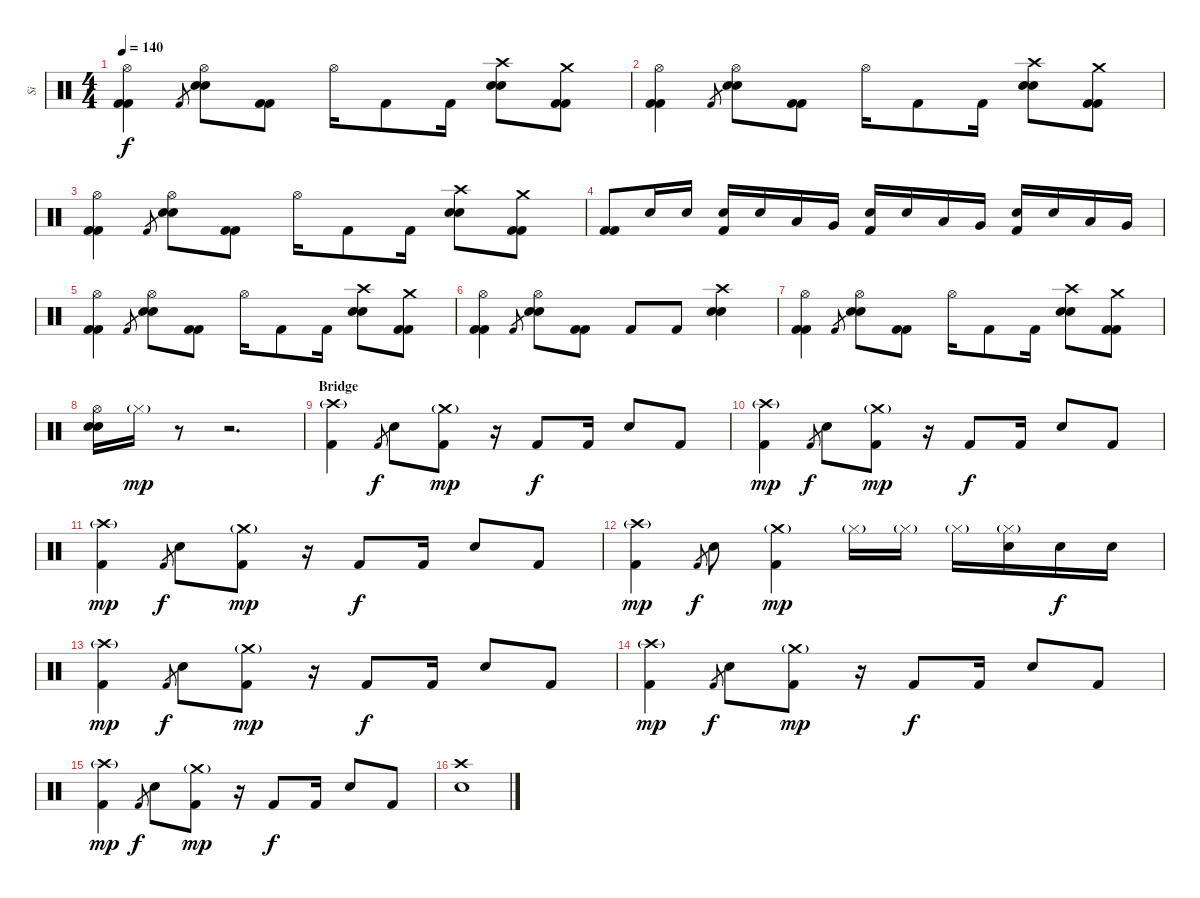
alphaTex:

\track ("Si" "Si") {instrument percussion}
\staff {score}
\articulation defaults
\ts (4 4)
\tempo 140
\clef neutral
\ks c
("Hi-Hat (open)" "Kick (hit) 2" "Kick (hit) 2").4{dy f} "Kick (hit) 2".8{gr} ("Hi-Hat (open)" "Electric Snare (hit)" "Electric Snare (hit)").8 ("Kick (hit) 2" "Kick (hit) 2").8 "Hi-Hat (open)".16 "Kick (hit) 2".8 "Kick (hit) 2".16 ("Crash high (hit)" "Electric Snare (hit)" "Electric Snare (hit)").8 ("Crash medium (hit)" "Kick (hit) 2" "Kick (hit) 2").8 |
("Hi-Hat (open)" "Kick (hit) 2" "Kick (hit) 2").4 "Kick (hit) 2".8{gr} ("Hi-Hat (open)" "Electric Snare (hit)" "Electric Snare (hit)").8 ("Kick (hit) 2" "Kick (hit) 2").8 "Hi-Hat (open)".16 "Kick (hit) 2".8 "Kick (hit) 2".16 ("Crash high (hit)" "Electric Snare (hit)" "Electric Snare (hit)").8 ("Crash medium (hit)" "Kick (hit) 2" "Kick (hit) 2").8 |
("Hi-Hat (open)" "Kick (hit) 2" "Kick (hit) 2").4 "Kick (hit) 2".8{gr} ("Hi-Hat (open)" "Electric Snare (hit)" "Electric Snare (hit)").8 ("Kick (hit) 2" "Kick (hit) 2").8 "Hi-Hat (open)".16 "Kick (hit) 2".8 "Kick (hit) 2".16 ("Crash high (hit)" "Electric Snare (hit)" "Electric Snare (hit)").8 ("Crash medium (hit)" "Kick (hit) 2" "Kick (hit) 2").8 |
("Kick (hit) 2" "Kick (hit) 2").8 "Electric Snare (hit)".16 "Electric Snare (hit)".16 ("Electric Snare (hit)" "Kick (hit) 2").16 "Electric Snare (hit)".16 "Low Tom (hit)".16 "Very Low Tom (hit)".16 ("Electric Snare (hit)" "Kick (hit) 2").16 "Electric Snare (hit)".16 "Low Tom (hit)".16 "Very Low Tom (hit)".16 ("Electric Snare (hit)" "Kick (hit) 2").16 "Electric Snare (hit)".16 "Low Tom (hit)".16 "Very Low Tom (hit)".16 |
("Hi-Hat (open)" "Kick (hit) 2" "Kick (hit) 2").4 "Kick (hit) 2".8{gr} ("Hi-Hat (open)" "Electric Snare (hit)" "Electric Snare (hit)").8 ("Kick (hit) 2" "Kick (hit) 2").8 "Hi-Hat (open)".16 "Kick (hit) 2".8 "Kick (hit) 2".16 ("Crash high (hit)" "Electric Snare (hit)" "Electric Snare (hit)").8 ("Crash medium (hit)" "Kick (hit) 2" "Kick (hit) 2").8 |
("Hi-Hat (open)" "Kick (hit) 2" "Kick (hit) 2").4 "Kick (hit) 2".8{gr} ("Hi-Hat (open)" "Electric Snare (hit)" "Electric Snare (hit)").8 ("Kick (hit) 2" "Kick (hit) 2").8 "Kick (hit) 2".8 "Kick (hit) 2".8 ("Crash high (hit)" "Electric Snare (hit)" "Electric Snare (hit)").4 |
("Hi-Hat (open)" "Kick (hit) 2" "Kick (hit) 2").4 "Kick (hit) 2".8{gr} ("Hi-Hat (open)" "Electric Snare (hit)" "Electric Snare (hit)").8 ("Kick (hit) 2" "Kick (hit) 2").8 "Hi-Hat (open)".16 "Kick (hit) 2".8 "Kick (hit) 2".16 ("Crash high (hit)" "Electric Snare (hit)" "Electric Snare (hit)").8 ("Crash medium (hit)" "Kick (hit) 2" "Kick (hit) 2").8 |
("Hi-Hat (open)" "Electric Snare (hit)" "Electric Snare (hit)").16 "Hi-Hat (closed)"{g}.16{dy mp} r.8 r.2{d} |
\section ("" "Bridge")
("Crash high (hit)"{g} "Kick (hit) 2").4 "Kick (hit) 2".8{gr dy f} "Electric Snare (hit)".8 ("Crash medium (hit)"{g} "Kick (hit) 2").8{dy mp} r.16 "Kick (hit) 2".8{dy f} "Kick (hit) 2".16 "Electric Snare (hit)".8 "Kick (hit) 2".8 |
("Crash high (hit)"{g} "Kick (hit) 2").4{dy mp} "Kick (hit) 2".8{gr dy f} "Electric Snare (hit)".8 ("Crash medium (hit)"{g} "Kick (hit) 2").8{dy mp} r.16 "Kick (hit) 2".8{dy f} "Kick (hit) 2".16 "Electric Snare (hit)".8 "Kick (hit) 2".8 |
("Crash high (hit)"{g} "Kick (hit) 2").4{dy mp} "Kick (hit) 2".8{gr dy f} "Electric Snare (hit)".8 ("Crash medium (hit)"{g} "Kick (hit) 2").8{dy mp} r.16 "Kick (hit) 2".8{dy f} "Kick (hit) 2".16 "Electric Snare (hit)".8 "Kick (hit) 2".8 |
("Crash high (hit)"{g} "Kick (hit) 2").4{dy mp} "Kick (hit) 2".8{gr dy f} "Electric Snare (hit)".8 ("Crash medium (hit)"{g} "Kick (hit) 2").4{dy mp} "Hi-Hat (closed)"{g}.16 "Hi-Hat (closed)"{g}.16 "Hi-Hat (closed)"{g}.16 ("Hi-Hat (closed)"{g} "Electric Snare (hit)").16 "Electric Snare (hit)".16{dy f} "Electric Snare (hit)".16 |
("Crash high (hit)"{g} "Kick (hit) 2").4{dy mp} "Kick (hit) 2".8{gr dy f} "Electric Snare (hit)".8 ("Crash medium (hit)"{g} "Kick (hit) 2").8{dy mp} r.16 "Kick (hit) 2".8{dy f} "Kick (hit) 2".16 "Electric Snare (hit)".8 "Kick (hit) 2".8 |
("Crash high (hit)"{g} "Kick (hit) 2").4{dy mp} "Kick (hit) 2".8{gr dy f} "Electric Snare (hit)".8 ("Crash medium (hit)"{g} "Kick (hit) 2").8{dy mp} r.16 "Kick (hit) 2".8{dy f} "Kick (hit) 2".16 "Electric Snare (hit)".8 "Kick (hit) 2".8 |
("Crash high (hit)"{g} "Kick (hit) 2").4{dy mp} "Kick (hit) 2".8{gr dy f} "Electric Snare (hit)".8 ("Crash medium (hit)"{g} "Kick (hit) 2").8{dy mp} r.16 "Kick (hit) 2".8{dy f} "Kick (hit) 2".16 "Electric Snare (hit)".8 "Kick (hit) 2".8 |
("Crash high (hit)" "Electric Snare (hit)").1
